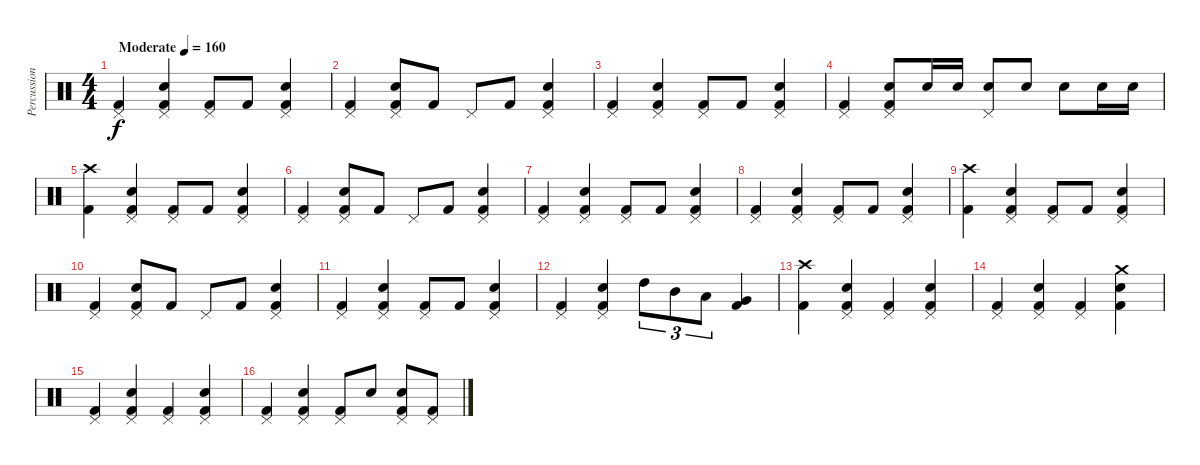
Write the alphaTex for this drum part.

\track ("Percussion" "Percussion") {instrument percussion}
\staff {score}
\articulation defaults
\ts (4 4)
\tempo (160 "Moderate")
\clef neutral
\ks c
("Pedal Hi-Hat (hit)" "Kick (hit) 2").4{dy f} ("Pedal Hi-Hat (hit)" "Snare (hit) 2" "Kick (hit) 2").4 ("Pedal Hi-Hat (hit)" "Kick (hit) 2").8 "Kick (hit) 2".8 ("Pedal Hi-Hat (hit)" "Snare (hit) 2" "Kick (hit) 2").4 |
("Pedal Hi-Hat (hit)" "Kick (hit) 2").4 ("Pedal Hi-Hat (hit)" "Snare (hit) 2" "Kick (hit) 2").8 "Kick (hit) 2".8 "Pedal Hi-Hat (hit)".8 "Kick (hit) 2".8 ("Pedal Hi-Hat (hit)" "Snare (hit) 2" "Kick (hit) 2").4 |
("Pedal Hi-Hat (hit)" "Kick (hit) 2").4 ("Pedal Hi-Hat (hit)" "Snare (hit) 2" "Kick (hit) 2").4 ("Pedal Hi-Hat (hit)" "Kick (hit) 2").8 "Kick (hit) 2".8 ("Pedal Hi-Hat (hit)" "Snare (hit) 2" "Kick (hit) 2").4 |
("Pedal Hi-Hat (hit)" "Kick (hit) 2").4 ("Pedal Hi-Hat (hit)" "Snare (hit) 2" "Kick (hit) 2").8 "Snare (hit) 2".16 "Snare (hit) 2".16 ("Pedal Hi-Hat (hit)" "Snare (hit) 2").8 "Snare (hit) 2".8 "Snare (hit) 2".8 "Snare (hit) 2".16 "Snare (hit) 2".16 |
("Crash high (hit)" "Kick (hit) 2").4 ("Pedal Hi-Hat (hit)" "Snare (hit) 2" "Kick (hit) 2").4 ("Pedal Hi-Hat (hit)" "Kick (hit) 2").8 "Kick (hit) 2".8 ("Pedal Hi-Hat (hit)" "Snare (hit) 2" "Kick (hit) 2").4 |
("Pedal Hi-Hat (hit)" "Kick (hit) 2").4 ("Pedal Hi-Hat (hit)" "Snare (hit) 2" "Kick (hit) 2").8 "Kick (hit) 2".8 "Pedal Hi-Hat (hit)".8 "Kick (hit) 2".8 ("Pedal Hi-Hat (hit)" "Snare (hit) 2" "Kick (hit) 2").4 |
("Pedal Hi-Hat (hit)" "Kick (hit) 2").4 ("Pedal Hi-Hat (hit)" "Snare (hit) 2" "Kick (hit) 2").4 ("Pedal Hi-Hat (hit)" "Kick (hit) 2").8 "Kick (hit) 2".8 ("Pedal Hi-Hat (hit)" "Snare (hit) 2" "Kick (hit) 2").4 |
("Pedal Hi-Hat (hit)" "Kick (hit) 2").4 ("Pedal Hi-Hat (hit)" "Snare (hit) 2" "Kick (hit) 2").4 ("Pedal Hi-Hat (hit)" "Kick (hit) 2").8 "Kick (hit) 2".8 ("Pedal Hi-Hat (hit)" "Snare (hit) 2" "Kick (hit) 2").4 |
("Crash high (hit)" "Kick (hit) 2").4 ("Pedal Hi-Hat (hit)" "Snare (hit) 2" "Kick (hit) 2").4 ("Pedal Hi-Hat (hit)" "Kick (hit) 2").8 "Kick (hit) 2".8 ("Pedal Hi-Hat (hit)" "Snare (hit) 2" "Kick (hit) 2").4 |
("Pedal Hi-Hat (hit)" "Kick (hit) 2").4 ("Pedal Hi-Hat (hit)" "Snare (hit) 2" "Kick (hit) 2").8 "Kick (hit) 2".8 "Pedal Hi-Hat (hit)".8 "Kick (hit) 2".8 ("Pedal Hi-Hat (hit)" "Snare (hit) 2" "Kick (hit) 2").4 |
("Pedal Hi-Hat (hit)" "Kick (hit) 2").4 ("Pedal Hi-Hat (hit)" "Snare (hit) 2" "Kick (hit) 2").4 ("Pedal Hi-Hat (hit)" "Kick (hit) 2").8 "Kick (hit) 2".8 ("Pedal Hi-Hat (hit)" "Snare (hit) 2" "Kick (hit) 2").4 |
("Pedal Hi-Hat (hit)" "Kick (hit) 2").4 ("Pedal Hi-Hat (hit)" "Snare (hit) 2" "Kick (hit) 2").4 "High Tom (hit)".8{tu (3 2)} "Mid Tom (hit)".8{tu (3 2)} "Low Tom (hit)".8{tu (3 2)} ("Very Low Tom (hit)" "Kick (hit) 2").4 |
("Crash high (hit)" "Kick (hit) 2").4 ("Pedal Hi-Hat (hit)" "Snare (hit) 2" "Kick (hit) 2").4 ("Pedal Hi-Hat (hit)" "Kick (hit) 2").4 ("Pedal Hi-Hat (hit)" "Snare (hit) 2" "Kick (hit) 2").4 |
("Pedal Hi-Hat (hit)" "Kick (hit) 2").4 ("Pedal Hi-Hat (hit)" "Snare (hit) 2" "Kick (hit) 2").4 ("Pedal Hi-Hat (hit)" "Kick (hit) 2").4 ("Crash medium (hit)" "Snare (hit) 2" "Kick (hit) 2").4 |
("Pedal Hi-Hat (hit)" "Kick (hit) 2").4 ("Pedal Hi-Hat (hit)" "Snare (hit) 2" "Kick (hit) 2").4 ("Pedal Hi-Hat (hit)" "Kick (hit) 2").4 ("Pedal Hi-Hat (hit)" "Snare (hit) 2" "Kick (hit) 2").4 |
("Pedal Hi-Hat (hit)" "Kick (hit) 2").4 ("Pedal Hi-Hat (hit)" "Snare (hit) 2" "Kick (hit) 2").4 ("Pedal Hi-Hat (hit)" "Kick (hit) 2").8 "Snare (hit) 2".8 ("Pedal Hi-Hat (hit)" "Snare (hit) 2" "Kick (hit) 2").8 ("Pedal Hi-Hat (hit)" "Kick (hit) 2").8
